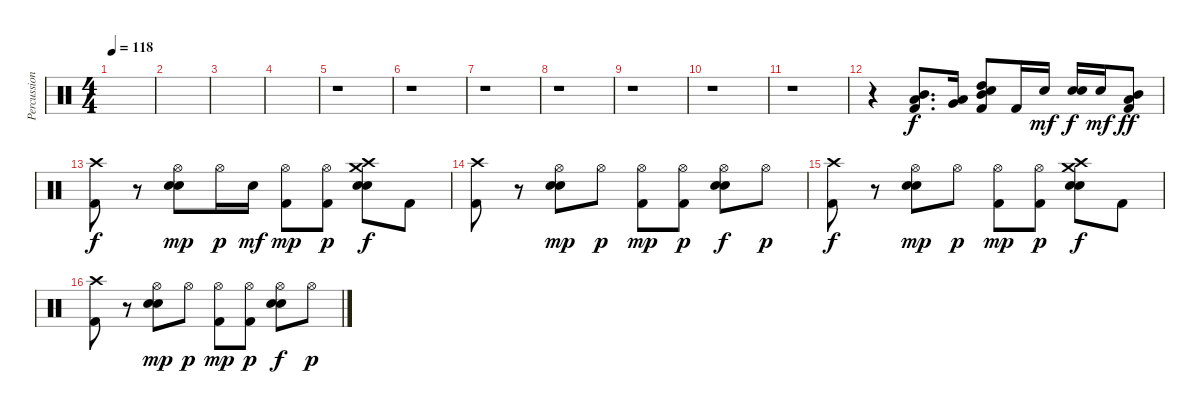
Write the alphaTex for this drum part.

\track ("Percussion" "Percussion") {instrument percussion}
\staff
\articulation defaults
\ts (4 4)
\tempo 118
\clef neutral
\ks c
|
|
|
|
r.1 |
r.1 |
r.1 |
r.1 |
r.1 |
r.1 |
r.1 |
r.4 ("Mid Tom (hit)" "Low Tom (hit)" "Kick (hit) 2").8{d} ("Low Tom (hit)" "Very Low Tom (hit)").16 ("Electric Snare (hit)" "Mid Tom (hit)" "High Tom (hit)" "Kick (hit) 2").8 "Kick (hit) 2".16{dy f} "Electric Snare (hit)".16{dy mf} ("Snare (hit) 2" "Electric Snare (hit)").16{dy f} "Electric Snare (hit)".16{dy mf} ("Mid Tom (hit)" "Low Tom (hit)" "Kick (hit) 2").8{dy ff} |
("Crash high (hit)" "Kick (hit) 2").8{dy f} r.8 ("Hi-Hat (open)" "Electric Snare (hit)" "Snare (hit) 2").8{dy mp} "Hi-Hat (open)".16{dy p} "Electric Snare (hit)".16{dy mf} ("Hi-Hat (open)" "Kick (hit) 2").8{dy mp} ("Hi-Hat (open)" "Kick (hit) 2").8{dy p} ("Crash medium (hit)" "Crash high (hit)" "Electric Snare (hit)" "Snare (hit) 2").8{dy f} "Kick (hit) 2".8 |
("Crash high (hit)" "Kick (hit) 2").8 r.8 ("Hi-Hat (open)" "Electric Snare (hit)" "Snare (hit) 2").8{dy mp} "Hi-Hat (open)".8{dy p} ("Hi-Hat (open)" "Kick (hit) 2").8{dy mp} ("Hi-Hat (open)" "Kick (hit) 2").8{dy p} ("Hi-Hat (open)" "Electric Snare (hit)" "Snare (hit) 2").8{dy f} "Hi-Hat (open)".8{dy p} |
("Crash high (hit)" "Kick (hit) 2").8{dy f} r.8 ("Hi-Hat (open)" "Electric Snare (hit)" "Snare (hit) 2").8{dy mp} "Hi-Hat (open)".8{dy p} ("Hi-Hat (open)" "Kick (hit) 2").8{dy mp} ("Hi-Hat (open)" "Kick (hit) 2").8{dy p} ("Crash medium (hit)" "Crash high (hit)" "Electric Snare (hit)" "Snare (hit) 2").8{dy f} "Kick (hit) 2".8 |
("Crash high (hit)" "Kick (hit) 2").8 r.8 ("Hi-Hat (open)" "Electric Snare (hit)" "Snare (hit) 2").8{dy mp} "Hi-Hat (open)".8{dy p} ("Hi-Hat (open)" "Kick (hit) 2").8{dy mp} ("Hi-Hat (open)" "Kick (hit) 2").8{dy p} ("Hi-Hat (open)" "Electric Snare (hit)" "Snare (hit) 2").8{dy f} "Hi-Hat (open)".8{dy p}
